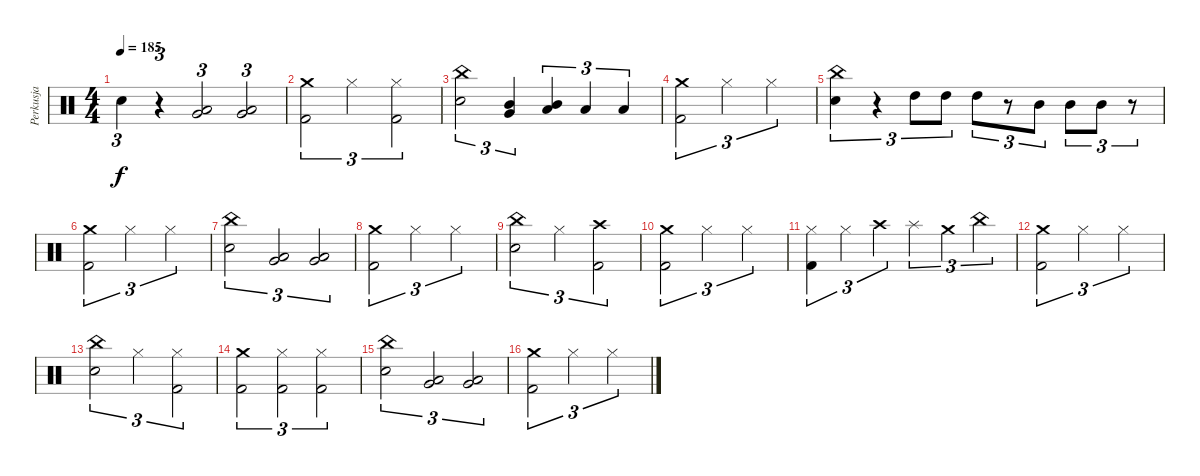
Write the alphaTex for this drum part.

\track ("Perkusja" "Perkusja") {instrument percussion}
\staff {score}
\articulation defaults
\ts (4 4)
\tempo 185
\clef neutral
\ks c "Snare (hit) 2".4{tu (3 2) dy f}
r.4{tu (3 2)} ("Low Tom (hit)" "Very Low Tom (hit)").2{tu (3 2)} ("Very Low Tom (hit)" "Low Floor Tom (hit)").2{tu (3 2)} |
("Kick (hit) 2" "Crash medium (hit)").2{tu (3 2)} "Hi-Hat (closed)".2{tu (3 2)} ("Kick (hit) 2" "Hi-Hat (closed)").2{tu (3 2)} |
("China (hit)" "Snare (hit) 2").2{tu (3 2)} ("Mid Tom (hit)" "Very Low Tom (hit)").4{tu (3 2)} ("Mid Tom (hit)" "Low Floor Tom (hit)").4{tu (3 2)} "Low Tom (hit)".4{tu (3 2)} "Low Tom (hit)".4{tu (3 2)} |
("Kick (hit) 2" "Crash medium (hit)").2{tu (3 2)} "Hi-Hat (closed)".2{tu (3 2)} "Hi-Hat (closed)".2{tu (3 2)} |
("Snare (hit) 2" "China (hit)").4{tu (3 2)} r.4{tu (3 2)} "High Tom (hit)".8{tu (3 2)} "High Tom (hit)".8{tu (3 2)} "High Tom (hit)".8{tu (3 2)} r.8{tu (3 2)} "Mid Tom (hit)".8{tu (3 2)} "Mid Tom (hit)".8{tu (3 2)} "Mid Tom (hit)".8{tu (3 2)} r.8{tu (3 2)} |
("Kick (hit) 2" "Crash medium (hit)").2{tu (3 2)} "Hi-Hat (closed)".2{tu (3 2)} "Hi-Hat (closed)".2{tu (3 2)} |
("China (hit)" "Snare (hit) 2").2{tu (3 2)} ("Low Tom (hit)" "Very Low Tom (hit)").2{tu (3 2)} ("Very Low Tom (hit)" "Low Floor Tom (hit)").2{tu (3 2)} |
("Kick (hit) 2" "Crash medium (hit)").2{tu (3 2)} "Hi-Hat (closed)".2{tu (3 2)} "Hi-Hat (closed)".2{tu (3 2)} |
("Snare (hit) 2" "China (hit)").2{tu (3 2)} "Hi-Hat (closed)".2{tu (3 2)} ("Kick (hit) 2" "Crash high (hit)").2{tu (3 2)} |
("Kick (hit) 2" "Crash medium (hit)").2{tu (3 2)} "Hi-Hat (closed)".2{tu (3 2)} "Hi-Hat (closed)".2{tu (3 2)} |
("Hi-Hat (closed)" "Kick (hit) 2").4{tu (3 2)} "Hi-Hat (closed)".4{tu (3 2)} "Crash high (hit)".4{tu (3 2)} "Splash (hit)".4{tu (3 2)} "Crash medium (hit)".4{tu (3 2)} "China (hit)".4{tu (3 2)} |
("Kick (hit) 2" "Crash medium (hit)").2{tu (3 2)} "Hi-Hat (closed)".2{tu (3 2)} "Hi-Hat (closed)".2{tu (3 2)} |
("Snare (hit) 2" "China (hit)").2{tu (3 2)} "Hi-Hat (closed)".2{tu (3 2)} ("Kick (hit) 2" "Hi-Hat (closed)").2{tu (3 2)} |
("Kick (hit) 2" "Crash medium (hit)").2{tu (3 2)} ("Kick (hit) 2" "Hi-Hat (closed)").2{tu (3 2)} ("Kick (hit) 2" "Hi-Hat (closed)").2{tu (3 2)} |
("China (hit)" "Snare (hit) 2").2{tu (3 2)} ("Low Tom (hit)" "Very Low Tom (hit)").2{tu (3 2)} ("Very Low Tom (hit)" "Low Floor Tom (hit)").2{tu (3 2)} |
("Kick (hit) 2" "Crash medium (hit)").2{tu (3 2)} "Hi-Hat (closed)".2{tu (3 2)} "Hi-Hat (closed)".2{tu (3 2)}
